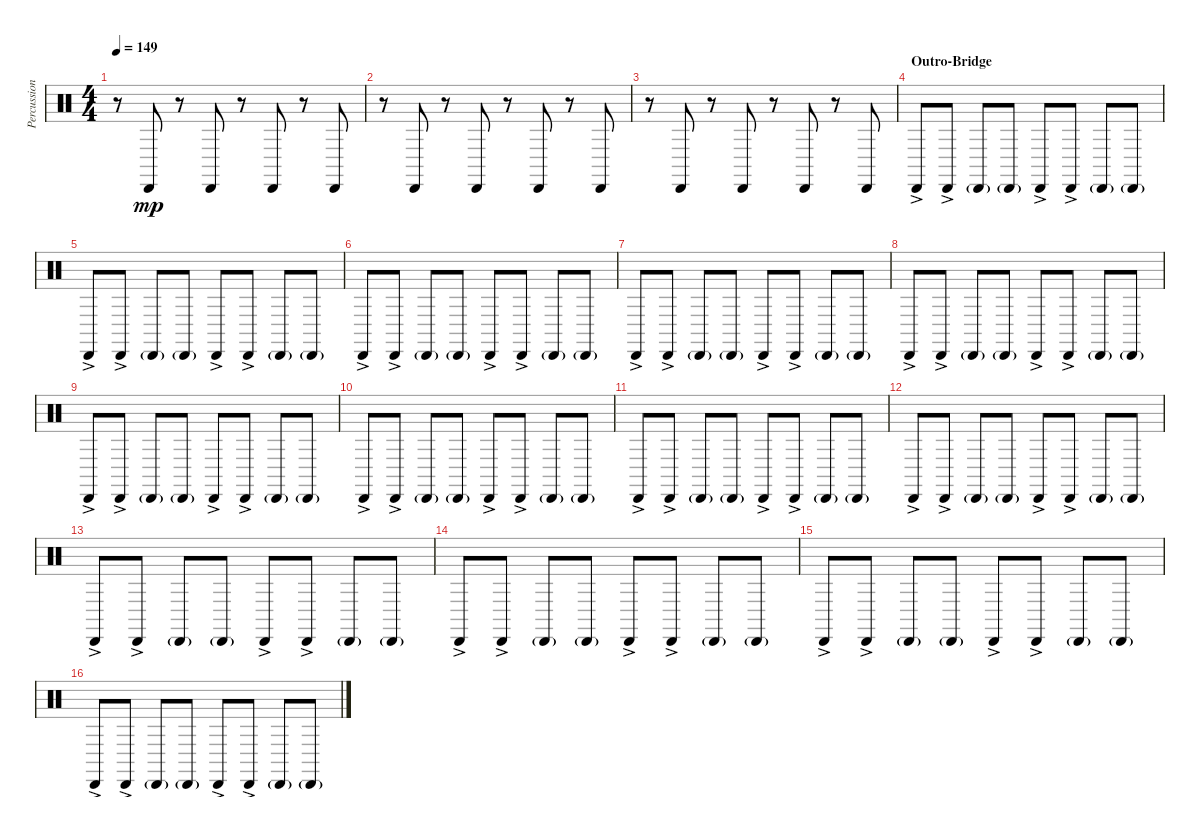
\track ("Percussion 2" "Percussion") {instrument percussion}
\staff {score}
\articulation defaults
\ts (4 4)
\tempo 149
\clef neutral
\ks c
r.8{dy mp} "Cabasa (hit)".8 r.8 "Cabasa (hit)".8 r.8 "Cabasa (hit)".8 r.8 "Cabasa (hit)".8 |
r.8 "Cabasa (hit)".8 r.8 "Cabasa (hit)".8 r.8 "Cabasa (hit)".8 r.8 "Cabasa (hit)".8 |
r.8 "Cabasa (hit)".8 r.8 "Cabasa (hit)".8 r.8 "Cabasa (hit)".8 r.8 "Cabasa (hit)".8 |
\section ("" "Outro-Bridge")
"Cabasa (hit)"{ac}.8 "Cabasa (hit)"{ac}.8 "Cabasa (hit)"{g}.8 "Cabasa (hit)"{g}.8 "Cabasa (hit)"{ac}.8 "Cabasa (hit)"{ac}.8 "Cabasa (hit)"{g}.8 "Cabasa (hit)"{g}.8 |
"Cabasa (hit)"{ac}.8 "Cabasa (hit)"{ac}.8 "Cabasa (hit)"{g}.8 "Cabasa (hit)"{g}.8 "Cabasa (hit)"{ac}.8 "Cabasa (hit)"{ac}.8 "Cabasa (hit)"{g}.8 "Cabasa (hit)"{g}.8 |
"Cabasa (hit)"{ac}.8 "Cabasa (hit)"{ac}.8 "Cabasa (hit)"{g}.8 "Cabasa (hit)"{g}.8 "Cabasa (hit)"{ac}.8 "Cabasa (hit)"{ac}.8 "Cabasa (hit)"{g}.8 "Cabasa (hit)"{g}.8 |
"Cabasa (hit)"{ac}.8 "Cabasa (hit)"{ac}.8 "Cabasa (hit)"{g}.8 "Cabasa (hit)"{g}.8 "Cabasa (hit)"{ac}.8 "Cabasa (hit)"{ac}.8 "Cabasa (hit)"{g}.8 "Cabasa (hit)"{g}.8 |
"Cabasa (hit)"{ac}.8 "Cabasa (hit)"{ac}.8 "Cabasa (hit)"{g}.8 "Cabasa (hit)"{g}.8 "Cabasa (hit)"{ac}.8 "Cabasa (hit)"{ac}.8 "Cabasa (hit)"{g}.8 "Cabasa (hit)"{g}.8 |
"Cabasa (hit)"{ac}.8 "Cabasa (hit)"{ac}.8 "Cabasa (hit)"{g}.8 "Cabasa (hit)"{g}.8 "Cabasa (hit)"{ac}.8 "Cabasa (hit)"{ac}.8 "Cabasa (hit)"{g}.8 "Cabasa (hit)"{g}.8 |
"Cabasa (hit)"{ac}.8 "Cabasa (hit)"{ac}.8 "Cabasa (hit)"{g}.8 "Cabasa (hit)"{g}.8 "Cabasa (hit)"{ac}.8 "Cabasa (hit)"{ac}.8 "Cabasa (hit)"{g}.8 "Cabasa (hit)"{g}.8 |
"Cabasa (hit)"{ac}.8 "Cabasa (hit)"{ac}.8 "Cabasa (hit)"{g}.8 "Cabasa (hit)"{g}.8 "Cabasa (hit)"{ac}.8 "Cabasa (hit)"{ac}.8 "Cabasa (hit)"{g}.8 "Cabasa (hit)"{g}.8 |
"Cabasa (hit)"{ac}.8 "Cabasa (hit)"{ac}.8 "Cabasa (hit)"{g}.8 "Cabasa (hit)"{g}.8 "Cabasa (hit)"{ac}.8 "Cabasa (hit)"{ac}.8 "Cabasa (hit)"{g}.8 "Cabasa (hit)"{g}.8 |
"Cabasa (hit)"{ac}.8 "Cabasa (hit)"{ac}.8 "Cabasa (hit)"{g}.8 "Cabasa (hit)"{g}.8 "Cabasa (hit)"{ac}.8 "Cabasa (hit)"{ac}.8 "Cabasa (hit)"{g}.8 "Cabasa (hit)"{g}.8 |
"Cabasa (hit)"{ac}.8 "Cabasa (hit)"{ac}.8 "Cabasa (hit)"{g}.8 "Cabasa (hit)"{g}.8 "Cabasa (hit)"{ac}.8 "Cabasa (hit)"{ac}.8 "Cabasa (hit)"{g}.8 "Cabasa (hit)"{g}.8 |
"Cabasa (hit)"{ac}.8 "Cabasa (hit)"{ac}.8 "Cabasa (hit)"{g}.8 "Cabasa (hit)"{g}.8 "Cabasa (hit)"{ac}.8 "Cabasa (hit)"{ac}.8 "Cabasa (hit)"{g}.8 "Cabasa (hit)"{g}.8 |
"Cabasa (hit)"{ac}.8 "Cabasa (hit)"{ac}.8 "Cabasa (hit)"{g}.8 "Cabasa (hit)"{g}.8 "Cabasa (hit)"{ac}.8 "Cabasa (hit)"{ac}.8 "Cabasa (hit)"{g}.8 "Cabasa (hit)"{g}.8
